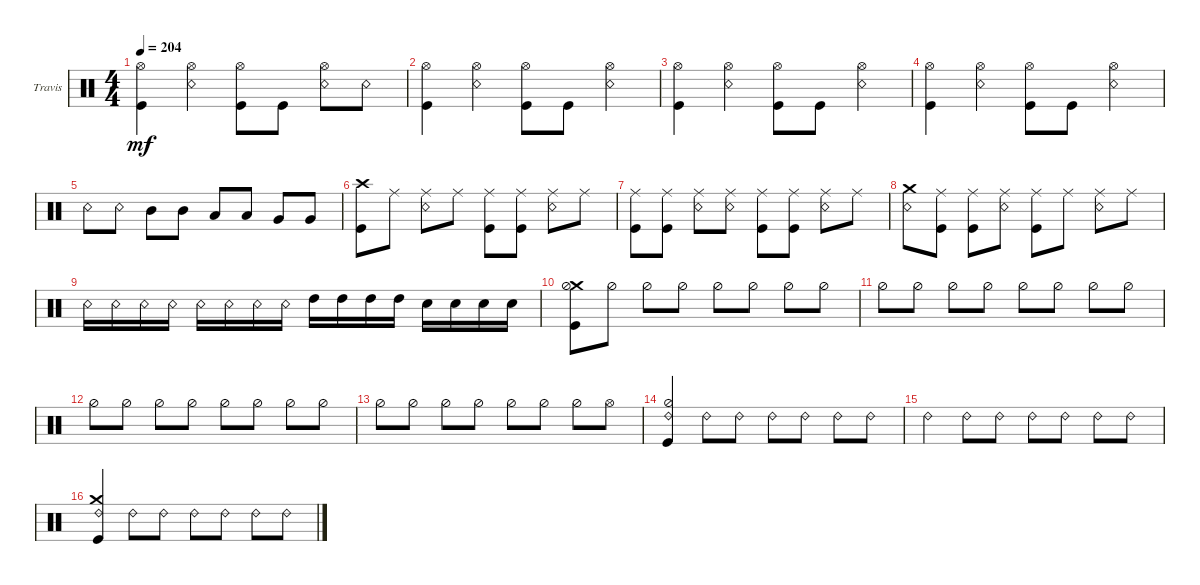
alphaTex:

\defaultSystemsLayout 4
\bracketExtendMode groupsimilarinstruments
\firstSystemTrackNameOrientation horizontal
\otherSystemsTrackNameOrientation horizontal
\track ("Travis Barker" "Travis") {instrument percussion}
\staff {score}
\articulation defaults
\ts (4 4)
\tempo 204
\clef neutral
\ks c
("Kick (hit)" "Hi-Hat (open)").4{dy mf} ("Hi-Hat (open)" "Snare (rim shot)").4 ("Hi-Hat (open)" "Kick (hit)").8 "Kick (hit)".8 ("Snare (rim shot)" "Hi-Hat (open)").8 "Snare (rim shot)".8 |
("Kick (hit)" "Hi-Hat (open)").4 ("Hi-Hat (open)" "Snare (rim shot)").4 ("Hi-Hat (open)" "Kick (hit)").8 "Kick (hit)".8 ("Snare (rim shot)" "Hi-Hat (open)").4 |
("Kick (hit)" "Hi-Hat (open)").4 ("Hi-Hat (open)" "Snare (rim shot)").4 ("Hi-Hat (open)" "Kick (hit)").8 "Kick (hit)".8 ("Snare (rim shot)" "Hi-Hat (open)").4 |
("Kick (hit)" "Hi-Hat (open)").4 ("Hi-Hat (open)" "Snare (rim shot)").4 ("Hi-Hat (open)" "Kick (hit)").8 "Kick (hit)".8 ("Snare (rim shot)" "Hi-Hat (open)").4 |
"Snare (rim shot)".8 "Snare (rim shot)".8 "Mid Tom (hit)".8 "Mid Tom (hit)".8 "Low Tom (hit)".8 "Low Tom (hit)".8 "Very Low Tom (hit)".8 "Very Low Tom (hit)".8 |
("Kick (hit)" "Crash high (hit)").8 "Ride (middle)".8 ("Ride (middle)" "Snare (rim shot)").8 "Ride (middle)".8 ("Ride (middle)" "Kick (hit)").8 ("Ride (middle)" "Kick (hit)").8 ("Ride (middle)" "Snare (rim shot)").8 "Ride (middle)".8 |
("Kick (hit)" "Ride (middle)").8 ("Ride (middle)" "Kick (hit)").8 ("Ride (middle)" "Snare (rim shot)").8 ("Ride (middle)" "Snare (rim shot)").8 ("Ride (middle)" "Kick (hit)").8 ("Ride (middle)" "Kick (hit)").8 ("Ride (middle)" "Snare (rim shot)").8 "Ride (middle)".8 |
("Crash medium (hit)" "Snare (rim shot)").8 ("Ride (middle)" "Kick (hit)").8 ("Ride (middle)" "Kick (hit)").8 ("Ride (middle)" "Snare (rim shot)").8 ("Ride (middle)" "Kick (hit)").8 "Ride (middle)".8 ("Ride (middle)" "Snare (rim shot)").8 "Ride (middle)".8 |
"Snare (rim shot)".16 "Snare (rim shot)".16 "Snare (rim shot)".16 "Snare (rim shot)".16 "Snare (rim shot)".16 "Snare (rim shot)".16 "Snare (rim shot)".16 "Snare (rim shot)".16 "High Tom (hit)".16 "High Tom (hit)".16 "High Tom (hit)".16 "High Tom (hit)".16 "Snare (hit) 2".16 "Snare (hit) 2".16 "Snare (hit) 2".16 "Snare (hit) 2".16 |
("Crash medium (hit)" "Hi-Hat (half)" "Kick (hit)").8 "Hi-Hat (half)".8 "Hi-Hat (half)".8 "Hi-Hat (half)".8 "Hi-Hat (half)".8 "Hi-Hat (half)".8 "Hi-Hat (half)".8 "Hi-Hat (half)".8 |
"Hi-Hat (half)".8 "Hi-Hat (half)".8 "Hi-Hat (half)".8 "Hi-Hat (half)".8 "Hi-Hat (half)".8 "Hi-Hat (half)".8 "Hi-Hat (half)".8 "Hi-Hat (half)".8 |
"Hi-Hat (half)".8 "Hi-Hat (half)".8 "Hi-Hat (half)".8 "Hi-Hat (half)".8 "Hi-Hat (half)".8 "Hi-Hat (half)".8 "Hi-Hat (half)".8 "Hi-Hat (half)".8 |
"Hi-Hat (half)".8 "Hi-Hat (half)".8 "Hi-Hat (half)".8 "Hi-Hat (half)".8 "Hi-Hat (half)".8 "Hi-Hat (half)".8 "Hi-Hat (half)".8 "Hi-Hat (open)".8 |
("Ride (bell) 2" "Kick (hit)" "Hi-Hat (half)").4 "Ride (bell) 2".8 "Ride (bell) 2".8 "Ride (bell) 2".8 "Ride (bell) 2".8 "Ride (bell) 2".8 "Ride (bell) 2".8 |
"Ride (bell) 2".4 "Ride (bell) 2".8 "Ride (bell) 2".8 "Ride (bell) 2".8 "Ride (bell) 2".8 "Ride (bell) 2".8 "Ride (bell) 2".8 |
("Crash medium (hit)" "Ride (bell) 2" "Kick (hit)").4 "Ride (bell) 2".8 "Ride (bell) 2".8 "Ride (bell) 2".8 "Ride (bell) 2".8 "Ride (bell) 2".8 "Ride (bell) 2".8
